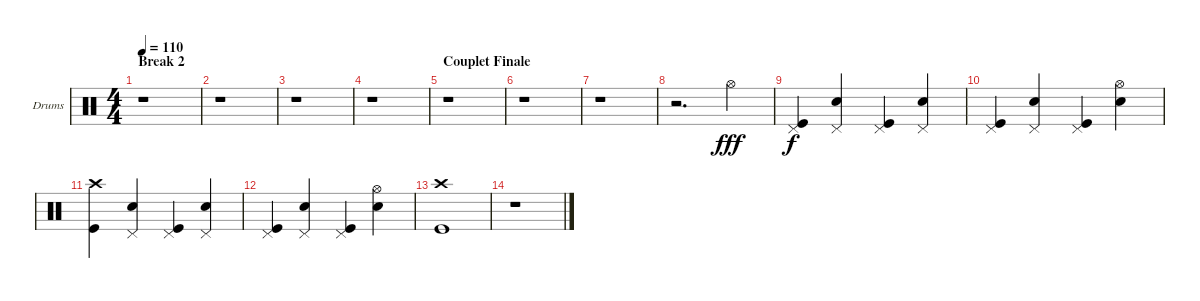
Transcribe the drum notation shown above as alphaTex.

\bracketExtendMode groupsimilarinstruments
\firstSystemTrackNameOrientation horizontal
\otherSystemsTrackNameOrientation horizontal
\chordDiagramsInScore
\track ("Drumkit" "Drums") {instrument percussion}
\staff {score}
\articulation defaults
\ts (4 4)
\section ("" "Break 2")
\tempo 110
\clef neutral
\ks c
r.1{dy f} |
r.1 |
r.1 |
r.1 |
\section ("" "Couplet Finale")
r.1 |
r.1 |
r.1 |
r.2{d} "Hi-Hat (open)".4{dy fff} |
("Pedal Hi-Hat (hit)" "Kick (hit)").4{dy f} ("Pedal Hi-Hat (hit)" "Snare (hit) 2").4 ("Pedal Hi-Hat (hit)" "Kick (hit)").4 ("Pedal Hi-Hat (hit)" "Snare (hit) 2").4 |
("Pedal Hi-Hat (hit)" "Kick (hit)").4 ("Pedal Hi-Hat (hit)" "Snare (hit) 2").4 ("Pedal Hi-Hat (hit)" "Kick (hit)").4 ("Hi-Hat (open)" "Snare (hit) 2").4 |
("Crash high (hit)" "Kick (hit)").4 ("Pedal Hi-Hat (hit)" "Snare (hit) 2").4 ("Pedal Hi-Hat (hit)" "Kick (hit)").4 ("Pedal Hi-Hat (hit)" "Snare (hit) 2").4 |
("Pedal Hi-Hat (hit)" "Kick (hit)").4 ("Pedal Hi-Hat (hit)" "Snare (hit) 2").4 ("Pedal Hi-Hat (hit)" "Kick (hit)").4 ("Hi-Hat (open)" "Snare (hit) 2").4 |
("Crash high (hit)" "Kick (hit)").1 |
r.1
